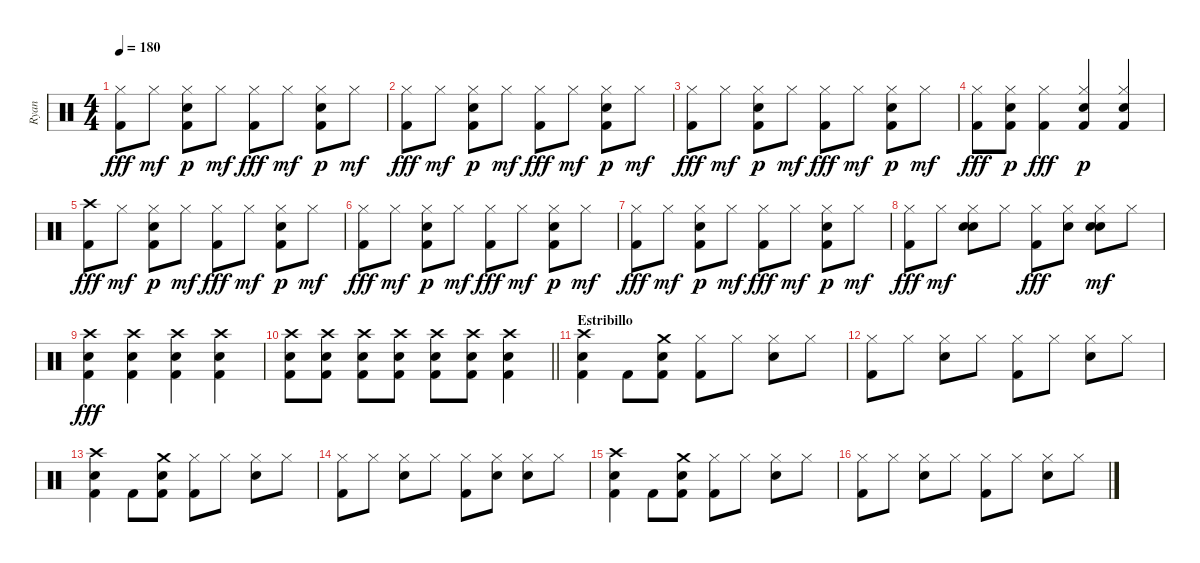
\track ("Ryan" "Ryan") {instrument percussion}
\staff {score}
\articulation defaults
\ts (4 4)
\tempo 180
\clef neutral
\ks c
("Kick (hit) 2" "Hi-Hat (closed)").8{dy fff} "Hi-Hat (closed)".8{dy mf} ("Snare (hit) 2" "Hi-Hat (closed)" "Kick (hit) 2").8{dy p} "Hi-Hat (closed)".8{dy mf} ("Kick (hit) 2" "Hi-Hat (closed)").8{dy fff} "Hi-Hat (closed)".8{dy mf} ("Snare (hit) 2" "Hi-Hat (closed)" "Kick (hit) 2").8{dy p} "Hi-Hat (closed)".8{dy mf} |
("Kick (hit) 2" "Hi-Hat (closed)").8{dy fff} "Hi-Hat (closed)".8{dy mf} ("Snare (hit) 2" "Hi-Hat (closed)" "Kick (hit) 2").8{dy p} "Hi-Hat (closed)".8{dy mf} ("Kick (hit) 2" "Hi-Hat (closed)").8{dy fff} "Hi-Hat (closed)".8{dy mf} ("Snare (hit) 2" "Hi-Hat (closed)" "Kick (hit) 2").8{dy p} "Hi-Hat (closed)".8{dy mf} |
("Kick (hit) 2" "Hi-Hat (closed)").8{dy fff} "Hi-Hat (closed)".8{dy mf} ("Snare (hit) 2" "Hi-Hat (closed)" "Kick (hit) 2").8{dy p} "Hi-Hat (closed)".8{dy mf} ("Kick (hit) 2" "Hi-Hat (closed)").8{dy fff} "Hi-Hat (closed)".8{dy mf} ("Snare (hit) 2" "Hi-Hat (closed)" "Kick (hit) 2").8{dy p} "Hi-Hat (closed)".8{dy mf} |
("Kick (hit) 2" "Hi-Hat (closed)").8{dy fff} ("Snare (hit) 2" "Hi-Hat (closed)" "Kick (hit) 2").8{dy p} ("Kick (hit) 2" "Hi-Hat (closed)").4{dy fff} ("Snare (hit) 2" "Hi-Hat (closed)" "Kick (hit) 2").4{dy p} ("Snare (hit) 2" "Hi-Hat (closed)" "Kick (hit) 2").4 |
("Kick (hit) 2" "Crash high (hit)").8{dy fff} "Hi-Hat (closed)".8{dy mf} ("Snare (hit) 2" "Hi-Hat (closed)" "Kick (hit) 2").8{dy p} "Hi-Hat (closed)".8{dy mf} ("Kick (hit) 2" "Hi-Hat (closed)").8{dy fff} "Hi-Hat (closed)".8{dy mf} ("Snare (hit) 2" "Hi-Hat (closed)" "Kick (hit) 2").8{dy p} "Hi-Hat (closed)".8{dy mf} |
("Kick (hit) 2" "Hi-Hat (closed)").8{dy fff} "Hi-Hat (closed)".8{dy mf} ("Snare (hit) 2" "Hi-Hat (closed)" "Kick (hit) 2").8{dy p} "Hi-Hat (closed)".8{dy mf} ("Kick (hit) 2" "Hi-Hat (closed)").8{dy fff} "Hi-Hat (closed)".8{dy mf} ("Snare (hit) 2" "Hi-Hat (closed)" "Kick (hit) 2").8{dy p} "Hi-Hat (closed)".8{dy mf} |
("Kick (hit) 2" "Hi-Hat (closed)").8{dy fff} "Hi-Hat (closed)".8{dy mf} ("Snare (hit) 2" "Hi-Hat (closed)" "Kick (hit) 2").8{dy p} "Hi-Hat (closed)".8{dy mf} ("Kick (hit) 2" "Hi-Hat (closed)").8{dy fff} "Hi-Hat (closed)".8{dy mf} ("Snare (hit) 2" "Hi-Hat (closed)" "Kick (hit) 2").8{dy p} "Hi-Hat (closed)".8{dy mf} |
("Kick (hit) 2" "Hi-Hat (closed)").8{dy fff} "Hi-Hat (closed)".8{dy mf} ("Snare (hit) 2" "Hi-Hat (closed)" "Hand Clap (hit)").8 "Hi-Hat (closed)".8 ("Kick (hit) 2" "Hi-Hat (closed)").8{dy fff} ("Snare (hit) 2" "Hi-Hat (closed)").8 ("Snare (hit) 2" "Hi-Hat (closed)" "Hand Clap (hit)").8{dy mf} "Hi-Hat (closed)".8 |
("Crash high (hit)" "Snare (hit) 2" "Kick (hit) 2").4{dy fff} ("Crash high (hit)" "Snare (hit) 2" "Kick (hit) 2").4 ("Crash high (hit)" "Snare (hit) 2" "Kick (hit) 2").4 ("Crash high (hit)" "Snare (hit) 2" "Kick (hit) 2").4 |
\barLineRight lightlight
("Crash high (hit)" "Snare (hit) 2" "Kick (hit) 2").8 ("Crash high (hit)" "Snare (hit) 2" "Kick (hit) 2").8 ("Crash high (hit)" "Snare (hit) 2" "Kick (hit) 2").8 ("Crash high (hit)" "Snare (hit) 2" "Kick (hit) 2").8 ("Crash high (hit)" "Snare (hit) 2" "Kick (hit) 2").8 ("Crash high (hit)" "Snare (hit) 2" "Kick (hit) 2").8 ("Crash high (hit)" "Snare (hit) 2" "Kick (hit) 2").4 |
\section ("" "Estribillo")
("Kick (hit) 2" "Snare (hit) 2" "Crash high (hit)").4 "Kick (hit) 2".8 ("Kick (hit) 2" "Snare (hit) 2" "Crash medium (hit)").8 ("Kick (hit) 2" "Hi-Hat (closed)").8 "Hi-Hat (closed)".8 ("Snare (hit) 2" "Hi-Hat (closed)").8 "Hi-Hat (closed)".8 |
("Kick (hit) 2" "Hi-Hat (closed)").8 "Hi-Hat (closed)".8 ("Snare (hit) 2" "Hi-Hat (closed)").8 "Hi-Hat (closed)".8 ("Kick (hit) 2" "Hi-Hat (closed)").8 "Hi-Hat (closed)".8 ("Snare (hit) 2" "Hi-Hat (closed)").8 "Hi-Hat (closed)".8 |
("Kick (hit) 2" "Snare (hit) 2" "Crash high (hit)").4 "Kick (hit) 2".8 ("Kick (hit) 2" "Snare (hit) 2" "Crash medium (hit)").8 ("Kick (hit) 2" "Hi-Hat (closed)").8 "Hi-Hat (closed)".8 ("Snare (hit) 2" "Hi-Hat (closed)").8 "Hi-Hat (closed)".8 |
("Kick (hit) 2" "Hi-Hat (closed)").8 "Hi-Hat (closed)".8 ("Snare (hit) 2" "Hi-Hat (closed)").8 "Hi-Hat (closed)".8 ("Kick (hit) 2" "Hi-Hat (closed)").8 ("Snare (hit) 2" "Hi-Hat (closed)").8 ("Snare (hit) 2" "Hi-Hat (closed)").8 "Hi-Hat (closed)".8 |
("Kick (hit) 2" "Snare (hit) 2" "Crash high (hit)").4 "Kick (hit) 2".8 ("Kick (hit) 2" "Snare (hit) 2" "Crash medium (hit)").8 ("Kick (hit) 2" "Hi-Hat (closed)").8 "Hi-Hat (closed)".8 ("Snare (hit) 2" "Hi-Hat (closed)").8 "Hi-Hat (closed)".8 |
("Kick (hit) 2" "Hi-Hat (closed)").8 "Hi-Hat (closed)".8 ("Snare (hit) 2" "Hi-Hat (closed)").8 "Hi-Hat (closed)".8 ("Kick (hit) 2" "Hi-Hat (closed)").8 "Hi-Hat (closed)".8 ("Snare (hit) 2" "Hi-Hat (closed)").8 "Hi-Hat (closed)".8
